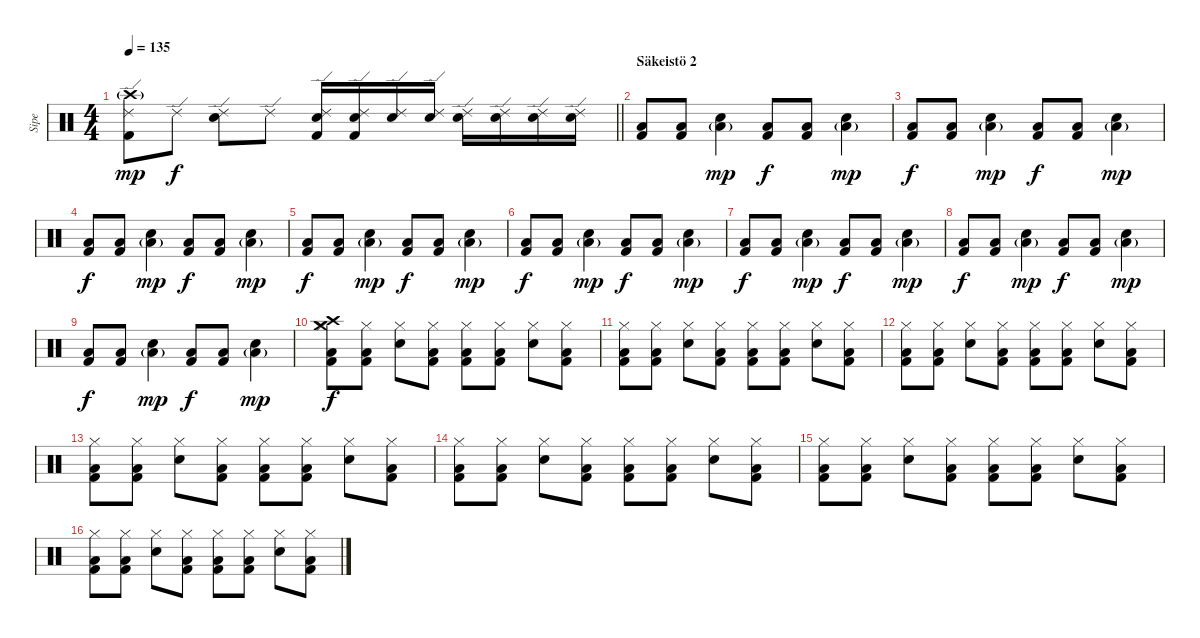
\track ("Sipe" "Sipe") {instrument percussion}
\staff {score}
\articulation defaults
\ts (4 4)
\tempo 135
\clef neutral
\barLineRight lightlight
\ks c
("Crash high (hit)"{g} "Kick (hit) 2" "Ride (edge) 2").8{dy mp} "Ride (edge) 2".8{dy f} ("Snare (hit) 2" "Ride (edge) 2").8 "Ride (edge) 2".8 ("Snare (hit) 2" "Kick (hit) 2" "Ride (edge) 2").16 ("Snare (hit) 2" "Kick (hit) 2" "Ride (edge) 2").16 ("Snare (hit) 2" "Ride (edge) 2").16 ("Snare (hit) 2" "Ride (edge) 2").16 ("Snare (hit) 2" "Ride (edge) 2").16 ("Snare (hit) 2" "Ride (edge) 2").16 ("Snare (hit) 2" "Ride (edge) 2").16 ("Snare (hit) 2" "Ride (edge) 2").16 |
\section ("" "Säkeistö 2")
("Low Tom (hit)" "Kick (hit) 2").8 ("Low Tom (hit)" "Kick (hit) 2").8 ("Snare (hit) 2" "Low Tom (hit)"{g}).4{dy mp} ("Low Tom (hit)" "Kick (hit) 2").8{dy f} ("Low Tom (hit)" "Kick (hit) 2").8 ("Snare (hit) 2" "Low Tom (hit)"{g}).4{dy mp} |
("Low Tom (hit)" "Kick (hit) 2").8{dy f} ("Low Tom (hit)" "Kick (hit) 2").8 ("Snare (hit) 2" "Low Tom (hit)"{g}).4{dy mp} ("Low Tom (hit)" "Kick (hit) 2").8{dy f} ("Low Tom (hit)" "Kick (hit) 2").8 ("Snare (hit) 2" "Low Tom (hit)"{g}).4{dy mp} |
("Low Tom (hit)" "Kick (hit) 2").8{dy f} ("Low Tom (hit)" "Kick (hit) 2").8 ("Snare (hit) 2" "Low Tom (hit)"{g}).4{dy mp} ("Low Tom (hit)" "Kick (hit) 2").8{dy f} ("Low Tom (hit)" "Kick (hit) 2").8 ("Snare (hit) 2" "Low Tom (hit)"{g}).4{dy mp} |
("Low Tom (hit)" "Kick (hit) 2").8{dy f} ("Low Tom (hit)" "Kick (hit) 2").8 ("Snare (hit) 2" "Low Tom (hit)"{g}).4{dy mp} ("Low Tom (hit)" "Kick (hit) 2").8{dy f} ("Low Tom (hit)" "Kick (hit) 2").8 ("Snare (hit) 2" "Low Tom (hit)"{g}).4{dy mp} |
("Low Tom (hit)" "Kick (hit) 2").8{dy f} ("Low Tom (hit)" "Kick (hit) 2").8 ("Snare (hit) 2" "Low Tom (hit)"{g}).4{dy mp} ("Low Tom (hit)" "Kick (hit) 2").8{dy f} ("Low Tom (hit)" "Kick (hit) 2").8 ("Snare (hit) 2" "Low Tom (hit)"{g}).4{dy mp} |
("Low Tom (hit)" "Kick (hit) 2").8{dy f} ("Low Tom (hit)" "Kick (hit) 2").8 ("Snare (hit) 2" "Low Tom (hit)"{g}).4{dy mp} ("Low Tom (hit)" "Kick (hit) 2").8{dy f} ("Low Tom (hit)" "Kick (hit) 2").8 ("Snare (hit) 2" "Low Tom (hit)"{g}).4{dy mp} |
("Low Tom (hit)" "Kick (hit) 2").8{dy f} ("Low Tom (hit)" "Kick (hit) 2").8 ("Snare (hit) 2" "Low Tom (hit)"{g}).4{dy mp} ("Low Tom (hit)" "Kick (hit) 2").8{dy f} ("Low Tom (hit)" "Kick (hit) 2").8 ("Snare (hit) 2" "Low Tom (hit)"{g}).4{dy mp} |
("Low Tom (hit)" "Kick (hit) 2").8{dy f} ("Low Tom (hit)" "Kick (hit) 2").8 ("Snare (hit) 2" "Low Tom (hit)"{g}).4{dy mp} ("Low Tom (hit)" "Kick (hit) 2").8{dy f} ("Low Tom (hit)" "Kick (hit) 2").8 ("Snare (hit) 2" "Low Tom (hit)"{g}).4{dy mp} |
("Low Tom (hit)" "Kick (hit) 2" "Hi-Hat (closed)" "Crash medium (hit)" "Crash high (hit)").8{dy f} ("Low Tom (hit)" "Kick (hit) 2" "Hi-Hat (closed)").8 ("Snare (hit) 2" "Hi-Hat (closed)").8 ("Low Tom (hit)" "Kick (hit) 2" "Hi-Hat (closed)").8 ("Low Tom (hit)" "Kick (hit) 2" "Hi-Hat (closed)").8 ("Low Tom (hit)" "Kick (hit) 2" "Hi-Hat (closed)").8 ("Snare (hit) 2" "Hi-Hat (closed)").8 ("Low Tom (hit)" "Kick (hit) 2" "Hi-Hat (closed)").8 |
("Low Tom (hit)" "Kick (hit) 2" "Hi-Hat (closed)").8 ("Low Tom (hit)" "Kick (hit) 2" "Hi-Hat (closed)").8 ("Snare (hit) 2" "Hi-Hat (closed)").8 ("Low Tom (hit)" "Kick (hit) 2" "Hi-Hat (closed)").8 ("Low Tom (hit)" "Kick (hit) 2" "Hi-Hat (closed)").8 ("Low Tom (hit)" "Kick (hit) 2" "Hi-Hat (closed)").8 ("Snare (hit) 2" "Hi-Hat (closed)").8 ("Low Tom (hit)" "Kick (hit) 2" "Hi-Hat (closed)").8 |
("Low Tom (hit)" "Kick (hit) 2" "Hi-Hat (closed)").8 ("Low Tom (hit)" "Kick (hit) 2" "Hi-Hat (closed)").8 ("Snare (hit) 2" "Hi-Hat (closed)").8 ("Low Tom (hit)" "Kick (hit) 2" "Hi-Hat (closed)").8 ("Low Tom (hit)" "Kick (hit) 2" "Hi-Hat (closed)").8 ("Low Tom (hit)" "Kick (hit) 2" "Hi-Hat (closed)").8 ("Snare (hit) 2" "Hi-Hat (closed)").8 ("Low Tom (hit)" "Kick (hit) 2" "Hi-Hat (closed)").8 |
("Low Tom (hit)" "Kick (hit) 2" "Hi-Hat (closed)").8 ("Low Tom (hit)" "Kick (hit) 2" "Hi-Hat (closed)").8 ("Snare (hit) 2" "Hi-Hat (closed)").8 ("Low Tom (hit)" "Kick (hit) 2" "Hi-Hat (closed)").8 ("Low Tom (hit)" "Kick (hit) 2" "Hi-Hat (closed)").8 ("Low Tom (hit)" "Kick (hit) 2" "Hi-Hat (closed)").8 ("Snare (hit) 2" "Hi-Hat (closed)").8 ("Low Tom (hit)" "Kick (hit) 2" "Hi-Hat (closed)").8 |
("Low Tom (hit)" "Kick (hit) 2" "Hi-Hat (closed)").8 ("Low Tom (hit)" "Kick (hit) 2" "Hi-Hat (closed)").8 ("Snare (hit) 2" "Hi-Hat (closed)").8 ("Low Tom (hit)" "Kick (hit) 2" "Hi-Hat (closed)").8 ("Low Tom (hit)" "Kick (hit) 2" "Hi-Hat (closed)").8 ("Low Tom (hit)" "Kick (hit) 2" "Hi-Hat (closed)").8 ("Snare (hit) 2" "Hi-Hat (closed)").8 ("Low Tom (hit)" "Kick (hit) 2" "Hi-Hat (closed)").8 |
("Low Tom (hit)" "Kick (hit) 2" "Hi-Hat (closed)").8 ("Low Tom (hit)" "Kick (hit) 2" "Hi-Hat (closed)").8 ("Snare (hit) 2" "Hi-Hat (closed)").8 ("Low Tom (hit)" "Kick (hit) 2" "Hi-Hat (closed)").8 ("Low Tom (hit)" "Kick (hit) 2" "Hi-Hat (closed)").8 ("Low Tom (hit)" "Kick (hit) 2" "Hi-Hat (closed)").8 ("Snare (hit) 2" "Hi-Hat (closed)").8 ("Low Tom (hit)" "Kick (hit) 2" "Hi-Hat (closed)").8 |
("Low Tom (hit)" "Kick (hit) 2" "Hi-Hat (closed)").8 ("Low Tom (hit)" "Kick (hit) 2" "Hi-Hat (closed)").8 ("Snare (hit) 2" "Hi-Hat (closed)").8 ("Low Tom (hit)" "Kick (hit) 2" "Hi-Hat (closed)").8 ("Low Tom (hit)" "Kick (hit) 2" "Hi-Hat (closed)").8 ("Low Tom (hit)" "Kick (hit) 2" "Hi-Hat (closed)").8 ("Snare (hit) 2" "Hi-Hat (closed)").8 ("Low Tom (hit)" "Kick (hit) 2" "Hi-Hat (closed)").8
